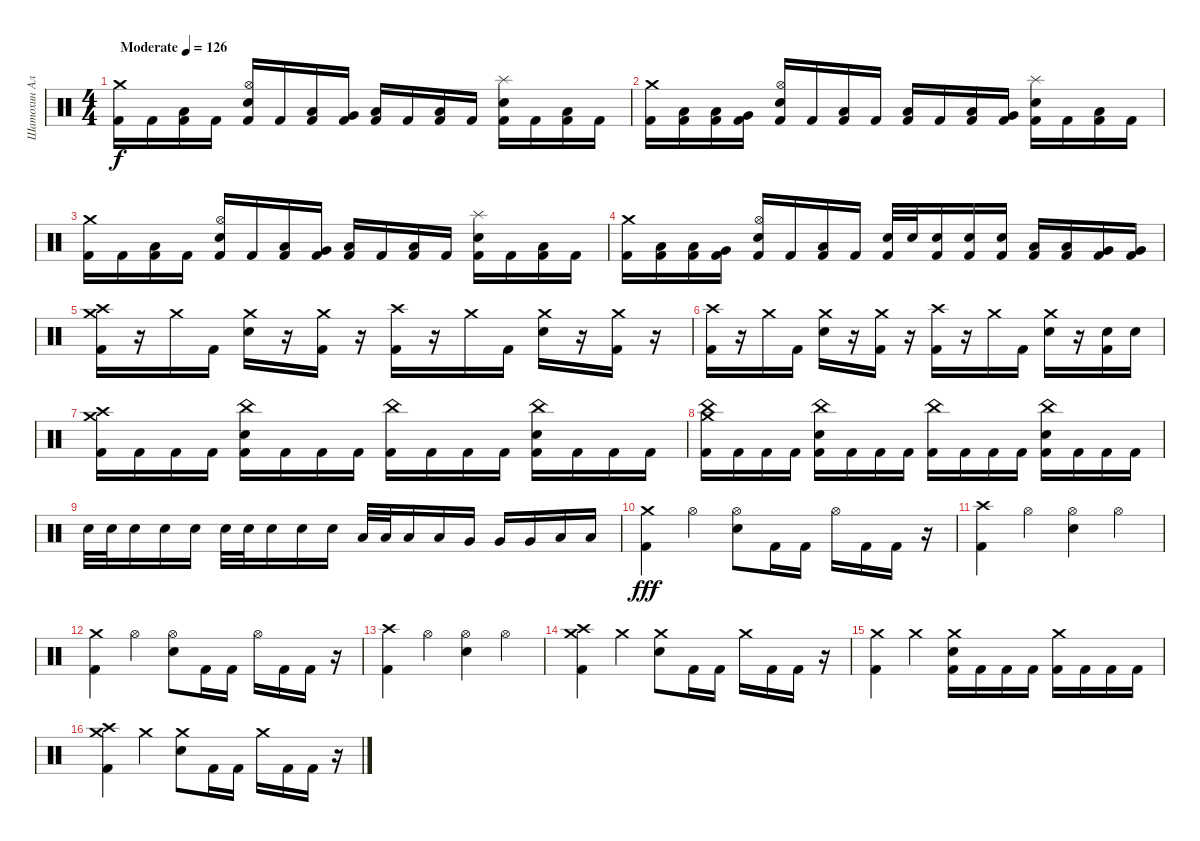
\track ("Шатохин Алексей" "Шатохин Ал") {instrument percussion}
\staff {score}
\articulation defaults
\ts (4 4)
\tempo (126 "Moderate")
\clef neutral
\ks c
("Crash medium (hit)" "Kick (hit) 2").16{dy f} "Kick (hit) 2".16 ("Low Floor Tom (hit)" "Kick (hit) 2").16 "Kick (hit) 2".16 ("Hi-Hat (open)" "Electric Snare (hit)" "Kick (hit) 2").16 "Kick (hit) 2".16 ("Low Floor Tom (hit)" "Kick (hit) 2").16 ("Very Low Tom (hit)" "Kick (hit) 2").16 ("Low Floor Tom (hit)" "Kick (hit) 2").16 "Kick (hit) 2".16 ("Low Floor Tom (hit)" "Kick (hit) 2").16 "Kick (hit) 2".16 ("Splash (hit)" "Electric Snare (hit)" "Kick (hit) 2").16 "Kick (hit) 2".16 ("Low Floor Tom (hit)" "Kick (hit) 2").16 "Kick (hit) 2".16 |
("Crash medium (hit)" "Kick (hit) 2").16 ("Low Tom (hit)" "Kick (hit) 2").16 ("Low Floor Tom (hit)" "Kick (hit) 2").16 ("Very Low Tom (hit)" "Kick (hit) 2").16 ("Hi-Hat (open)" "Electric Snare (hit)" "Kick (hit) 2").16 "Kick (hit) 2".16 ("Low Floor Tom (hit)" "Kick (hit) 2").16 "Kick (hit) 2".16 ("Low Floor Tom (hit)" "Kick (hit) 2").16 "Kick (hit) 2".16 ("Low Floor Tom (hit)" "Kick (hit) 2").16 ("Very Low Tom (hit)" "Kick (hit) 2").16 ("Splash (hit)" "Electric Snare (hit)" "Kick (hit) 2").16 "Kick (hit) 2".16 ("Low Floor Tom (hit)" "Kick (hit) 2").16 "Kick (hit) 2".16 |
("Crash medium (hit)" "Kick (hit) 2").16 "Kick (hit) 2".16 ("Low Floor Tom (hit)" "Kick (hit) 2").16 "Kick (hit) 2".16 ("Hi-Hat (open)" "Electric Snare (hit)" "Kick (hit) 2").16 "Kick (hit) 2".16 ("Low Floor Tom (hit)" "Kick (hit) 2").16 ("Very Low Tom (hit)" "Kick (hit) 2").16 ("Low Floor Tom (hit)" "Kick (hit) 2").16 "Kick (hit) 2".16 ("Low Floor Tom (hit)" "Kick (hit) 2").16 "Kick (hit) 2".16 ("Splash (hit)" "Electric Snare (hit)" "Kick (hit) 2").16 "Kick (hit) 2".16 ("Low Floor Tom (hit)" "Kick (hit) 2").16 "Kick (hit) 2".16 |
("Crash medium (hit)" "Kick (hit) 2").16 ("Low Tom (hit)" "Kick (hit) 2").16 ("Low Floor Tom (hit)" "Kick (hit) 2").16 ("Very Low Tom (hit)" "Kick (hit) 2").16 ("Hi-Hat (open)" "Electric Snare (hit)" "Kick (hit) 2").16 "Kick (hit) 2".16 ("Low Floor Tom (hit)" "Kick (hit) 2").16 "Kick (hit) 2".16 ("Electric Snare (hit)" "Kick (hit) 2").32 "Electric Snare (hit)".32 ("Electric Snare (hit)" "Kick (hit) 2").16 ("Electric Snare (hit)" "Kick (hit) 2").16 ("Electric Snare (hit)" "Kick (hit) 2").16 ("Low Tom (hit)" "Kick (hit) 2").16 ("Low Tom (hit)" "Kick (hit) 2").16 ("Very Low Tom (hit)" "Kick (hit) 2").16 ("Very Low Tom (hit)" "Kick (hit) 2").16 |
("Crash high (hit)" "Crash medium (hit)" "Kick (hit) 2").16 r.16 "Crash medium (hit)".16 "Kick (hit) 2".16 ("Crash medium (hit)" "Electric Snare (hit)").16 r.16 ("Crash medium (hit)" "Kick (hit) 2").16 r.16 ("Crash high (hit)" "Kick (hit) 2").16 r.16 "Crash medium (hit)".16 "Kick (hit) 2".16 ("Crash medium (hit)" "Electric Snare (hit)").16 r.16 ("Crash medium (hit)" "Kick (hit) 2").16 r.16 |
("Crash high (hit)" "Kick (hit) 2").16 r.16 "Crash medium (hit)".16 "Kick (hit) 2".16 ("Crash medium (hit)" "Electric Snare (hit)").16 r.16 ("Crash medium (hit)" "Kick (hit) 2").16 r.16 ("Crash high (hit)" "Kick (hit) 2").16 r.16 "Crash medium (hit)".16 "Kick (hit) 2".16 ("Crash medium (hit)" "Electric Snare (hit)").16 r.16 ("Electric Snare (hit)" "Kick (hit) 2").16 "Electric Snare (hit)".16 |
("Crash medium (hit)" "Crash high (hit)" "Kick (hit) 2").16 "Kick (hit) 2".16 "Kick (hit) 2".16 "Kick (hit) 2".16 ("China (hit)" "Electric Snare (hit)" "Kick (hit) 2").16 "Kick (hit) 2".16 "Kick (hit) 2".16 "Kick (hit) 2".16 ("China (hit)" "Kick (hit) 2").16 "Kick (hit) 2".16 "Kick (hit) 2".16 "Kick (hit) 2".16 ("China (hit)" "Electric Snare (hit)" "Kick (hit) 2").16 "Kick (hit) 2".16 "Kick (hit) 2".16 "Kick (hit) 2".16 |
("Crash medium (hit)" "China (hit)" "Kick (hit) 2").16 "Kick (hit) 2".16 "Kick (hit) 2".16 "Kick (hit) 2".16 ("China (hit)" "Electric Snare (hit)" "Kick (hit) 2").16 "Kick (hit) 2".16 "Kick (hit) 2".16 "Kick (hit) 2".16 ("China (hit)" "Kick (hit) 2").16 "Kick (hit) 2".16 "Kick (hit) 2".16 "Kick (hit) 2".16 ("China (hit)" "Electric Snare (hit)" "Kick (hit) 2").16 "Kick (hit) 2".16 "Kick (hit) 2".16 "Kick (hit) 2".16 |
"Electric Snare (hit)".32 "Electric Snare (hit)".32 "Electric Snare (hit)".16 "Electric Snare (hit)".16 "Electric Snare (hit)".16 "Electric Snare (hit)".32 "Electric Snare (hit)".32 "Electric Snare (hit)".16 "Electric Snare (hit)".16 "Electric Snare (hit)".16 "Low Tom (hit)".32 "Low Tom (hit)".32 "Low Tom (hit)".16 "Low Tom (hit)".16 "Very Low Tom (hit)".16 "Very Low Tom (hit)".16 "Very Low Tom (hit)".16 "Low Floor Tom (hit)".16 "Low Floor Tom (hit)".16 |
("Crash medium (hit)" "Kick (hit) 2").4{dy fff} "Hi-Hat (open)".4 ("Hi-Hat (open)" "Electric Snare (hit)").8 "Kick (hit) 2".16 "Kick (hit) 2".16 "Hi-Hat (open)".16 "Kick (hit) 2".16 "Kick (hit) 2".16 r.16 |
("Crash high (hit)" "Kick (hit) 2").4 "Hi-Hat (open)".4 ("Hi-Hat (open)" "Electric Snare (hit)").4 "Hi-Hat (open)".4 |
("Crash medium (hit)" "Kick (hit) 2").4 "Hi-Hat (open)".4 ("Hi-Hat (open)" "Electric Snare (hit)").8 "Kick (hit) 2".16 "Kick (hit) 2".16 "Hi-Hat (open)".16 "Kick (hit) 2".16 "Kick (hit) 2".16 r.16 |
("Crash high (hit)" "Kick (hit) 2").4 "Hi-Hat (open)".4 ("Hi-Hat (open)" "Electric Snare (hit)").4 "Hi-Hat (open)".4 |
("Crash high (hit)" "Crash medium (hit)" "Kick (hit) 2").4 "Crash medium (hit)".4 ("Crash medium (hit)" "Electric Snare (hit)").8 "Kick (hit) 2".16 "Kick (hit) 2".16 "Crash medium (hit)".16 "Kick (hit) 2".16 "Kick (hit) 2".16 r.16 |
("Crash medium (hit)" "Kick (hit) 2").4 "Crash medium (hit)".4 ("Crash medium (hit)" "Electric Snare (hit)" "Kick (hit) 2").16 "Kick (hit) 2".16 "Kick (hit) 2".16 "Kick (hit) 2".16 ("Crash medium (hit)" "Kick (hit) 2").16 "Kick (hit) 2".16 "Kick (hit) 2".16 "Kick (hit) 2".16 |
("Crash high (hit)" "Crash medium (hit)" "Kick (hit) 2").4 "Crash medium (hit)".4 ("Crash medium (hit)" "Electric Snare (hit)").8 "Kick (hit) 2".16 "Kick (hit) 2".16 "Crash medium (hit)".16 "Kick (hit) 2".16 "Kick (hit) 2".16 r.16
